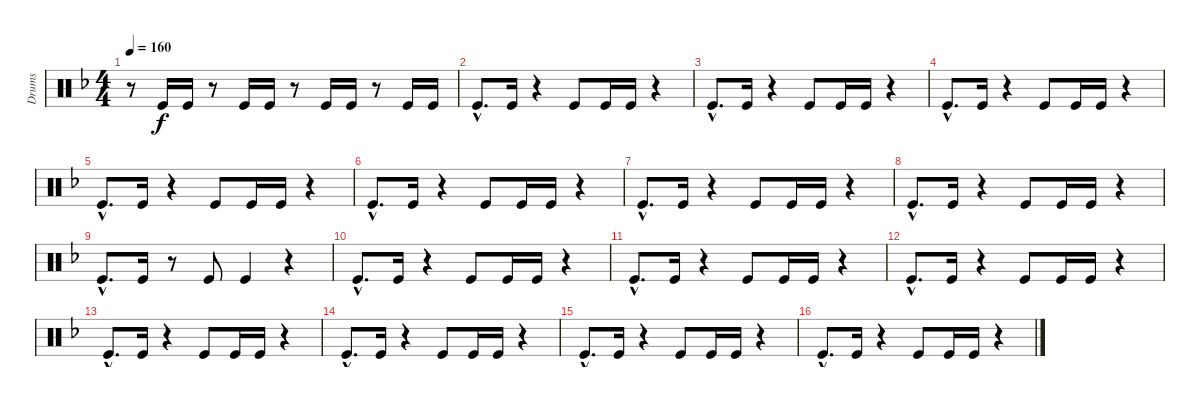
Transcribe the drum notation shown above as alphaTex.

\track ("Drums" "Drums") {instrument percussion}
\staff {score}
\articulation defaults
\ts (4 4)
\tempo 160
\clef neutral
\ks f
r.8{dy f} "Kick (hit)".16 "Kick (hit)".16 r.8 "Kick (hit)".16 "Kick (hit)".16 r.8 "Kick (hit)".16 "Kick (hit)".16 r.8 "Kick (hit)".16 "Kick (hit)".16 |
"Kick (hit)"{hac}.8{d} "Kick (hit)".16 r.4 "Kick (hit)".8 "Kick (hit)".16 "Kick (hit)".16 r.4 |
"Kick (hit)"{hac}.8{d} "Kick (hit)".16 r.4 "Kick (hit)".8 "Kick (hit)".16 "Kick (hit)".16 r.4 |
"Kick (hit)"{hac}.8{d} "Kick (hit)".16 r.4 "Kick (hit)".8 "Kick (hit)".16 "Kick (hit)".16 r.4 |
"Kick (hit)"{hac}.8{d} "Kick (hit)".16 r.4 "Kick (hit)".8 "Kick (hit)".16 "Kick (hit)".16 r.4 |
"Kick (hit)"{hac}.8{d} "Kick (hit)".16 r.4 "Kick (hit)".8 "Kick (hit)".16 "Kick (hit)".16 r.4 |
"Kick (hit)"{hac}.8{d} "Kick (hit)".16 r.4 "Kick (hit)".8 "Kick (hit)".16 "Kick (hit)".16 r.4 |
"Kick (hit)"{hac}.8{d} "Kick (hit)".16 r.4 "Kick (hit)".8 "Kick (hit)".16 "Kick (hit)".16 r.4 |
"Kick (hit)"{hac}.8{d} "Kick (hit)".16 r.8 "Kick (hit)".8 "Kick (hit)".4 r.4 |
"Kick (hit)"{hac}.8{d} "Kick (hit)".16 r.4 "Kick (hit)".8 "Kick (hit)".16 "Kick (hit)".16 r.4 |
"Kick (hit)"{hac}.8{d} "Kick (hit)".16 r.4 "Kick (hit)".8 "Kick (hit)".16 "Kick (hit)".16 r.4 |
"Kick (hit)"{hac}.8{d} "Kick (hit)".16 r.4 "Kick (hit)".8 "Kick (hit)".16 "Kick (hit)".16 r.4 |
"Kick (hit)"{hac}.8{d} "Kick (hit)".16 r.4 "Kick (hit)".8 "Kick (hit)".16 "Kick (hit)".16 r.4 |
"Kick (hit)"{hac}.8{d} "Kick (hit)".16 r.4 "Kick (hit)".8 "Kick (hit)".16 "Kick (hit)".16 r.4 |
"Kick (hit)"{hac}.8{d} "Kick (hit)".16 r.4 "Kick (hit)".8 "Kick (hit)".16 "Kick (hit)".16 r.4 |
"Kick (hit)"{hac}.8{d} "Kick (hit)".16 r.4 "Kick (hit)".8 "Kick (hit)".16 "Kick (hit)".16 r.4
